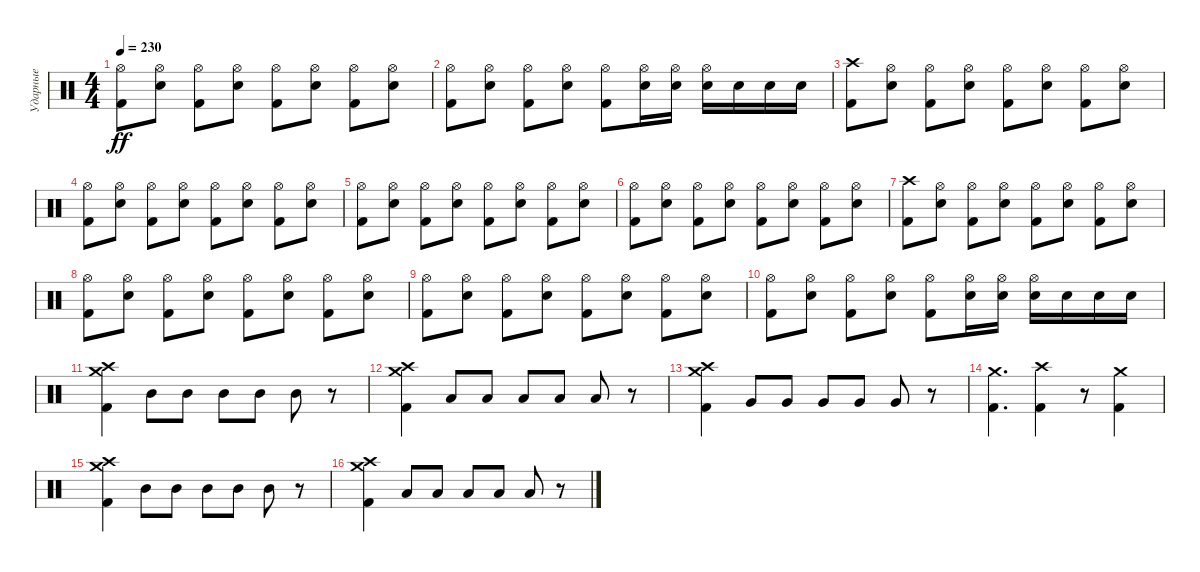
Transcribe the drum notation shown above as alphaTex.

\track ("Ударные" "Ударные") {instrument percussion}
\staff {score}
\articulation defaults
\ts (4 4)
\tempo 230
\clef neutral
\ks c
("Hi-Hat (open)" "Kick (hit) 2").8{dy ff} ("Hi-Hat (open)" "Snare (hit) 2").8 ("Hi-Hat (open)" "Kick (hit) 2").8 ("Hi-Hat (open)" "Snare (hit) 2").8 ("Hi-Hat (open)" "Kick (hit) 2").8 ("Hi-Hat (open)" "Snare (hit) 2").8 ("Hi-Hat (open)" "Kick (hit) 2").8 ("Hi-Hat (open)" "Snare (hit) 2").8 |
("Hi-Hat (open)" "Kick (hit) 2").8 ("Hi-Hat (open)" "Snare (hit) 2").8 ("Hi-Hat (open)" "Kick (hit) 2").8 ("Hi-Hat (open)" "Snare (hit) 2").8 ("Hi-Hat (open)" "Kick (hit) 2").8 ("Hi-Hat (open)" "Snare (hit) 2").16 ("Hi-Hat (open)" "Snare (hit) 2").16 ("Hi-Hat (open)" "Snare (hit) 2").16 "Snare (hit) 2".16 "Snare (hit) 2".16 "Snare (hit) 2".16 |
("Crash high (hit)" "Kick (hit) 2").8 ("Hi-Hat (open)" "Snare (hit) 2").8 ("Hi-Hat (open)" "Kick (hit) 2").8 ("Hi-Hat (open)" "Snare (hit) 2").8 ("Hi-Hat (open)" "Kick (hit) 2").8 ("Hi-Hat (open)" "Snare (hit) 2").8 ("Hi-Hat (open)" "Kick (hit) 2").8 ("Hi-Hat (open)" "Snare (hit) 2").8 |
("Hi-Hat (open)" "Kick (hit) 2").8 ("Hi-Hat (open)" "Snare (hit) 2").8 ("Hi-Hat (open)" "Kick (hit) 2").8 ("Hi-Hat (open)" "Snare (hit) 2").8 ("Hi-Hat (open)" "Kick (hit) 2").8 ("Hi-Hat (open)" "Snare (hit) 2").8 ("Hi-Hat (open)" "Kick (hit) 2").8 ("Hi-Hat (open)" "Snare (hit) 2").8 |
("Hi-Hat (open)" "Kick (hit) 2").8 ("Hi-Hat (open)" "Snare (hit) 2").8 ("Hi-Hat (open)" "Kick (hit) 2").8 ("Hi-Hat (open)" "Snare (hit) 2").8 ("Hi-Hat (open)" "Kick (hit) 2").8 ("Hi-Hat (open)" "Snare (hit) 2").8 ("Hi-Hat (open)" "Kick (hit) 2").8 ("Hi-Hat (open)" "Snare (hit) 2").8 |
("Hi-Hat (open)" "Kick (hit) 2").8 ("Hi-Hat (open)" "Snare (hit) 2").8 ("Hi-Hat (open)" "Kick (hit) 2").8 ("Hi-Hat (open)" "Snare (hit) 2").8 ("Hi-Hat (open)" "Kick (hit) 2").8 ("Hi-Hat (open)" "Snare (hit) 2").8 ("Hi-Hat (open)" "Kick (hit) 2").8 ("Hi-Hat (open)" "Snare (hit) 2").8 |
("Crash high (hit)" "Kick (hit) 2").8 ("Hi-Hat (open)" "Snare (hit) 2").8 ("Hi-Hat (open)" "Kick (hit) 2").8 ("Hi-Hat (open)" "Snare (hit) 2").8 ("Hi-Hat (open)" "Kick (hit) 2").8 ("Hi-Hat (open)" "Snare (hit) 2").8 ("Hi-Hat (open)" "Kick (hit) 2").8 ("Hi-Hat (open)" "Snare (hit) 2").8 |
("Hi-Hat (open)" "Kick (hit) 2").8 ("Hi-Hat (open)" "Snare (hit) 2").8 ("Hi-Hat (open)" "Kick (hit) 2").8 ("Hi-Hat (open)" "Snare (hit) 2").8 ("Hi-Hat (open)" "Kick (hit) 2").8 ("Hi-Hat (open)" "Snare (hit) 2").8 ("Hi-Hat (open)" "Kick (hit) 2").8 ("Hi-Hat (open)" "Snare (hit) 2").8 |
("Hi-Hat (open)" "Kick (hit) 2").8 ("Hi-Hat (open)" "Snare (hit) 2").8 ("Hi-Hat (open)" "Kick (hit) 2").8 ("Hi-Hat (open)" "Snare (hit) 2").8 ("Hi-Hat (open)" "Kick (hit) 2").8 ("Hi-Hat (open)" "Snare (hit) 2").8 ("Hi-Hat (open)" "Kick (hit) 2").8 ("Hi-Hat (open)" "Snare (hit) 2").8 |
("Hi-Hat (open)" "Kick (hit) 2").8 ("Hi-Hat (open)" "Snare (hit) 2").8 ("Hi-Hat (open)" "Kick (hit) 2").8 ("Hi-Hat (open)" "Snare (hit) 2").8 ("Hi-Hat (open)" "Kick (hit) 2").8 ("Hi-Hat (open)" "Snare (hit) 2").16 ("Hi-Hat (open)" "Snare (hit) 2").16 ("Hi-Hat (open)" "Snare (hit) 2").16 "Snare (hit) 2".16 "Snare (hit) 2".16 "Snare (hit) 2".16 |
("Crash high (hit)" "Crash medium (hit)" "Kick (hit) 2").4 "Mid Tom (hit)".8 "Mid Tom (hit)".8 "Mid Tom (hit)".8 "Mid Tom (hit)".8 "Mid Tom (hit)".8 r.8 |
("Crash high (hit)" "Crash medium (hit)" "Kick (hit) 2").4 "Low Tom (hit)".8 "Low Tom (hit)".8 "Low Tom (hit)".8 "Low Tom (hit)".8 "Low Tom (hit)".8 r.8 |
("Crash high (hit)" "Crash medium (hit)" "Kick (hit) 2").4 "Very Low Tom (hit)".8 "Very Low Tom (hit)".8 "Very Low Tom (hit)".8 "Very Low Tom (hit)".8 "Very Low Tom (hit)".8 r.8 |
("Crash medium (hit)" "Kick (hit) 2").4{d} ("Crash high (hit)" "Kick (hit) 2").4 r.8 ("Crash medium (hit)" "Kick (hit) 2").4 |
("Crash high (hit)" "Crash medium (hit)" "Kick (hit) 2").4 "Mid Tom (hit)".8 "Mid Tom (hit)".8 "Mid Tom (hit)".8 "Mid Tom (hit)".8 "Mid Tom (hit)".8 r.8 |
("Crash high (hit)" "Crash medium (hit)" "Kick (hit) 2").4 "Low Tom (hit)".8 "Low Tom (hit)".8 "Low Tom (hit)".8 "Low Tom (hit)".8 "Low Tom (hit)".8 r.8
